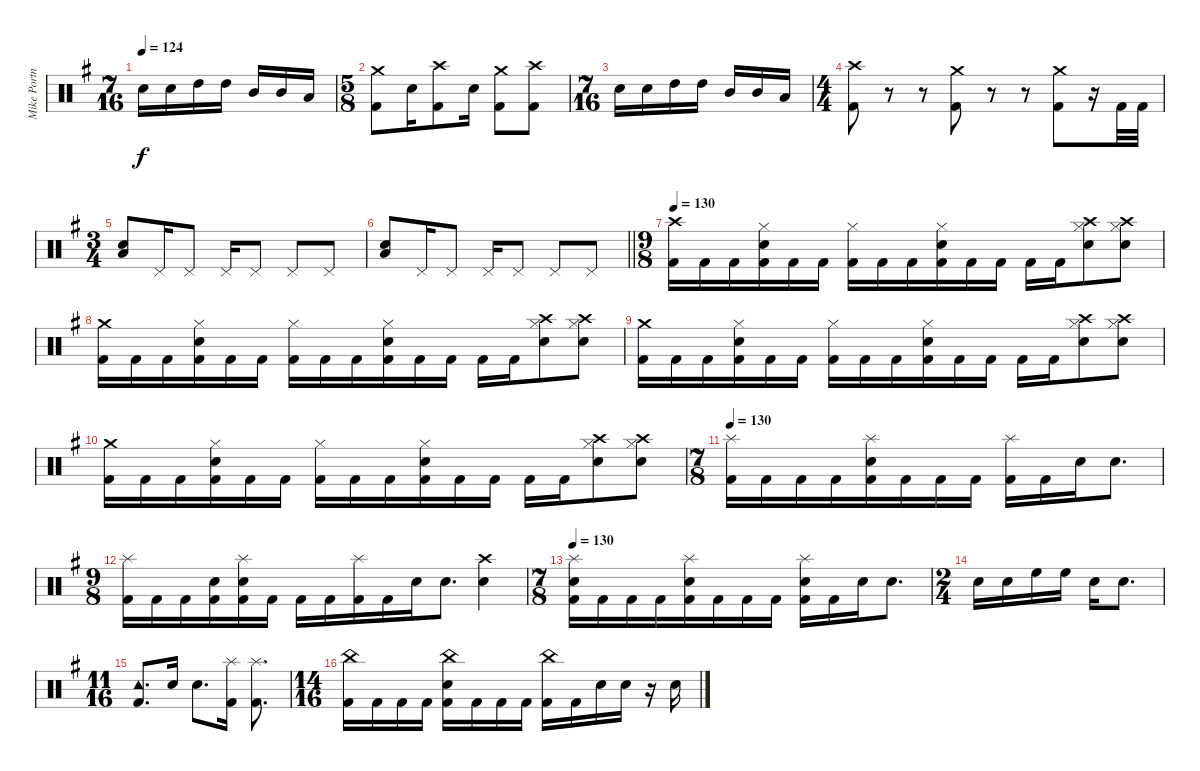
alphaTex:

\track ("Mike Portnoy - Drums" "Mike Portn") {instrument percussion}
\staff {score}
\articulation defaults
\ts (7 16)
\tempo 124
\clef neutral
\ks g "Snare (hit) 2".16{dy f} "Snare (hit) 2".16 "High Tom (hit)".16 "High Tom (hit)".16 "Mid Tom (hit)".16 "Mid Tom (hit)".16 "Low Tom (hit)".16
|
\ts (5 8)
("Crash medium (hit)" "Kick (hit) 2").8 "Snare (hit) 2".16 ("Crash high (hit)" "Kick (hit) 2").8 "Snare (hit) 2".16 ("Crash medium (hit)" "Kick (hit) 2").8 ("Crash high (hit)" "Kick (hit) 2").8 |
\ts (7 16)
"Snare (hit) 2".16 "Snare (hit) 2".16 "High Tom (hit)".16 "High Tom (hit)".16 "Mid Tom (hit)".16 "Mid Tom (hit)".16 "Low Tom (hit)".16 |
\ts (4 4)
("Crash high (hit)" "Kick (hit) 2").8 r.8 r.8 ("Crash medium (hit)" "Kick (hit) 2").8 r.8 r.8 ("Crash medium (hit)" "Kick (hit) 2").8 r.16 "Kick (hit) 2".32 "Kick (hit) 2".32 |
\ts (3 4)
("Snare (hit) 2" "Low Floor Tom (hit)").8 "Pedal Hi-Hat (hit)".16 "Pedal Hi-Hat (hit)".8 "Pedal Hi-Hat (hit)".16 "Pedal Hi-Hat (hit)".8 "Pedal Hi-Hat (hit)".8 "Pedal Hi-Hat (hit)".8 |
\barLineRight lightlight
("Snare (hit) 2" "Low Floor Tom (hit)").8 "Pedal Hi-Hat (hit)".16 "Pedal Hi-Hat (hit)".8 "Pedal Hi-Hat (hit)".16 "Pedal Hi-Hat (hit)".8 "Pedal Hi-Hat (hit)".8 "Pedal Hi-Hat (hit)".8 |
\ts (9 8)
\tempo 130
("Crash high (hit)" "Kick (hit) 2").16 "Kick (hit) 2".16 "Kick (hit) 2".16 ("Hi-Hat (closed)" "Electric Snare (hit)" "Kick (hit) 2").16 "Kick (hit) 2".16 "Kick (hit) 2".16 ("Hi-Hat (closed)" "Kick (hit) 2").16 "Kick (hit) 2".16 "Kick (hit) 2".16 ("Hi-Hat (closed)" "Electric Snare (hit)" "Kick (hit) 2").16 "Kick (hit) 2".16 "Kick (hit) 2".16 "Kick (hit) 2".16 "Kick (hit) 2".16 ("Hi-Hat (closed)" "Electric Snare (hit)" "Crash high (hit)").8 ("Hi-Hat (closed)" "Electric Snare (hit)" "Crash high (hit)").8 |
("Crash medium (hit)" "Kick (hit) 2").16 "Kick (hit) 2".16 "Kick (hit) 2".16 ("Hi-Hat (closed)" "Electric Snare (hit)" "Kick (hit) 2").16 "Kick (hit) 2".16 "Kick (hit) 2".16 ("Hi-Hat (closed)" "Kick (hit) 2").16 "Kick (hit) 2".16 "Kick (hit) 2".16 ("Hi-Hat (closed)" "Electric Snare (hit)" "Kick (hit) 2").16 "Kick (hit) 2".16 "Kick (hit) 2".16 "Kick (hit) 2".16 "Kick (hit) 2".16 ("Hi-Hat (closed)" "Electric Snare (hit)" "Crash high (hit)").8 ("Hi-Hat (closed)" "Electric Snare (hit)" "Crash high (hit)").8 |
("Crash medium (hit)" "Kick (hit) 2").16 "Kick (hit) 2".16 "Kick (hit) 2".16 ("Hi-Hat (closed)" "Electric Snare (hit)" "Kick (hit) 2").16 "Kick (hit) 2".16 "Kick (hit) 2".16 ("Hi-Hat (closed)" "Kick (hit) 2").16 "Kick (hit) 2".16 "Kick (hit) 2".16 ("Hi-Hat (closed)" "Electric Snare (hit)" "Kick (hit) 2").16 "Kick (hit) 2".16 "Kick (hit) 2".16 "Kick (hit) 2".16 "Kick (hit) 2".16 ("Hi-Hat (closed)" "Electric Snare (hit)" "Crash high (hit)").8 ("Hi-Hat (closed)" "Electric Snare (hit)" "Crash high (hit)").8 |
("Crash medium (hit)" "Kick (hit) 2").16 "Kick (hit) 2".16 "Kick (hit) 2".16 ("Hi-Hat (closed)" "Electric Snare (hit)" "Kick (hit) 2").16 "Kick (hit) 2".16 "Kick (hit) 2".16 ("Hi-Hat (closed)" "Kick (hit) 2").16 "Kick (hit) 2".16 "Kick (hit) 2".16 ("Hi-Hat (closed)" "Electric Snare (hit)" "Kick (hit) 2").16 "Kick (hit) 2".16 "Kick (hit) 2".16 "Kick (hit) 2".16 "Kick (hit) 2".16 ("Hi-Hat (closed)" "Electric Snare (hit)" "Crash high (hit)").8 ("Hi-Hat (closed)" "Electric Snare (hit)" "Crash high (hit)").8 |
\ts (7 8)
\tempo 130
("Splash (hit)" "Kick (hit) 2").16 "Kick (hit) 2".16 "Kick (hit) 2".16 "Kick (hit) 2".16 ("Splash (hit)" "Electric Snare (hit)" "Kick (hit) 2").16 "Kick (hit) 2".16 "Kick (hit) 2".16 "Kick (hit) 2".16 ("Splash (hit)" "Kick (hit) 2").16 "Kick (hit) 2".16 "Electric Snare (hit)".16 "Electric Snare (hit)".8{d} |
\ts (9 8)
("Splash (hit)" "Kick (hit) 2").16 "Kick (hit) 2".16 "Kick (hit) 2".16 ("Electric Snare (hit)" "Kick (hit) 2").16 ("Splash (hit)" "Electric Snare (hit)" "Kick (hit) 2").16 "Kick (hit) 2".16 "Kick (hit) 2".16 "Kick (hit) 2".16 ("Splash (hit)" "Kick (hit) 2").16 "Kick (hit) 2".16 "Electric Snare (hit)".16 "Electric Snare (hit)".8{d} ("Crash high (hit)" "Electric Snare (hit)").4 |
\ts (7 8)
\tempo 130
("Splash (hit)" "Electric Snare (hit)" "Kick (hit) 2").16 "Kick (hit) 2".16 "Kick (hit) 2".16 "Kick (hit) 2".16 ("Splash (hit)" "Electric Snare (hit)" "Kick (hit) 2").16 "Kick (hit) 2".16 "Kick (hit) 2".16 "Kick (hit) 2".16 ("Splash (hit)" "Electric Snare (hit)" "Kick (hit) 2").16 "Kick (hit) 2".16 "Electric Snare (hit)".16 "Electric Snare (hit)".8{d} |
\ts (2 4)
"Electric Snare (hit)".16 "Electric Snare (hit)".16 "High Floor Tom (hit)".16 "High Floor Tom (hit)".16 "Electric Snare (hit)".16 "Electric Snare (hit)".8{d} |
\ts (11 16)
("Tambourine (hit)" "Kick (hit) 2").8{d} "Electric Snare (hit)".16 "Electric Snare (hit)".8{d} ("Splash (hit)" "Kick (hit) 2").16 ("Splash (hit)" "Kick (hit) 2").8{d} |
\ts (14 16)
("China (hit)" "Kick (hit) 2").16 "Kick (hit) 2".16 "Kick (hit) 2".16 "Kick (hit) 2".16 ("China (hit)" "Electric Snare (hit)" "Kick (hit) 2").16 "Kick (hit) 2".16 "Kick (hit) 2".16 "Kick (hit) 2".16 ("China (hit)" "Kick (hit) 2").16 "Kick (hit) 2".16 "Electric Snare (hit)".16 "Electric Snare (hit)".16 r.16 "Electric Snare (hit)".16
